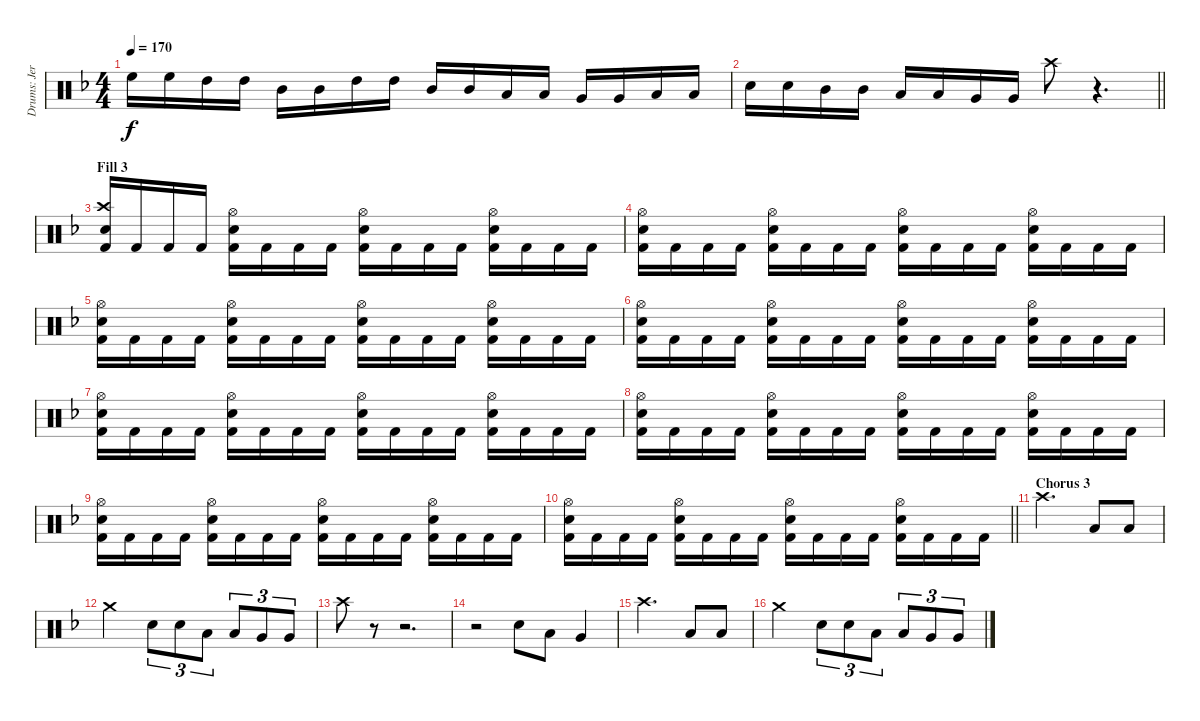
\track ("Drums: Jere Luokkamäki" "Drums: Jer") {instrument percussion}
\staff {score}
\articulation defaults
\ts (4 4)
\tempo 170
\clef neutral
\ks dminor "High Floor Tom (hit)".16{dy f} "High Floor Tom (hit)".16 "High Tom (hit)".16 "High Tom (hit)".16 "Mid Tom (hit)".16 "Mid Tom (hit)".16 "High Tom (hit)".16 "High Tom (hit)".16 "Mid Tom (hit)".16 "Mid Tom (hit)".16 "Low Tom (hit)".16 "Low Tom (hit)".16 "Very Low Tom (hit)".16 "Very Low Tom (hit)".16 "Low Floor Tom (hit)".16 "Low Floor Tom (hit)".16
|
\barLineRight lightlight "Electric Snare (hit)".16 "Electric Snare (hit)".16 "Mid Tom (hit)".16 "Mid Tom (hit)".16 "Low Tom (hit)".16 "Low Tom (hit)".16 "Very Low Tom (hit)".16 "Very Low Tom (hit)".16 "Crash high (hit)".8
r.4{d} |
\section ("" "Fill 3")
("Crash high (hit)" "Electric Snare (hit)" "Kick (hit) 2").16 "Kick (hit) 2".16 "Kick (hit) 2".16 "Kick (hit) 2".16 ("Hi-Hat (open)" "Electric Snare (hit)" "Kick (hit) 2").16 "Kick (hit) 2".16 "Kick (hit) 2".16 "Kick (hit) 2".16 ("Hi-Hat (open)" "Electric Snare (hit)" "Kick (hit) 2").16 "Kick (hit) 2".16 "Kick (hit) 2".16 "Kick (hit) 2".16 ("Hi-Hat (open)" "Electric Snare (hit)" "Kick (hit) 2").16 "Kick (hit) 2".16 "Kick (hit) 2".16 "Kick (hit) 2".16 |
("Hi-Hat (open)" "Electric Snare (hit)" "Kick (hit) 2").16 "Kick (hit) 2".16 "Kick (hit) 2".16 "Kick (hit) 2".16 ("Hi-Hat (open)" "Electric Snare (hit)" "Kick (hit) 2").16 "Kick (hit) 2".16 "Kick (hit) 2".16 "Kick (hit) 2".16 ("Hi-Hat (open)" "Electric Snare (hit)" "Kick (hit) 2").16 "Kick (hit) 2".16 "Kick (hit) 2".16 "Kick (hit) 2".16 ("Hi-Hat (open)" "Electric Snare (hit)" "Kick (hit) 2").16 "Kick (hit) 2".16 "Kick (hit) 2".16 "Kick (hit) 2".16 |
("Hi-Hat (open)" "Electric Snare (hit)" "Kick (hit) 2").16 "Kick (hit) 2".16 "Kick (hit) 2".16 "Kick (hit) 2".16 ("Hi-Hat (open)" "Electric Snare (hit)" "Kick (hit) 2").16 "Kick (hit) 2".16 "Kick (hit) 2".16 "Kick (hit) 2".16 ("Hi-Hat (open)" "Electric Snare (hit)" "Kick (hit) 2").16 "Kick (hit) 2".16 "Kick (hit) 2".16 "Kick (hit) 2".16 ("Hi-Hat (open)" "Electric Snare (hit)" "Kick (hit) 2").16 "Kick (hit) 2".16 "Kick (hit) 2".16 "Kick (hit) 2".16 |
("Hi-Hat (open)" "Electric Snare (hit)" "Kick (hit) 2").16 "Kick (hit) 2".16 "Kick (hit) 2".16 "Kick (hit) 2".16 ("Hi-Hat (open)" "Electric Snare (hit)" "Kick (hit) 2").16 "Kick (hit) 2".16 "Kick (hit) 2".16 "Kick (hit) 2".16 ("Hi-Hat (open)" "Electric Snare (hit)" "Kick (hit) 2").16 "Kick (hit) 2".16 "Kick (hit) 2".16 "Kick (hit) 2".16 ("Hi-Hat (open)" "Electric Snare (hit)" "Kick (hit) 2").16 "Kick (hit) 2".16 "Kick (hit) 2".16 "Kick (hit) 2".16 |
("Hi-Hat (open)" "Electric Snare (hit)" "Kick (hit) 2").16 "Kick (hit) 2".16 "Kick (hit) 2".16 "Kick (hit) 2".16 ("Hi-Hat (open)" "Electric Snare (hit)" "Kick (hit) 2").16 "Kick (hit) 2".16 "Kick (hit) 2".16 "Kick (hit) 2".16 ("Hi-Hat (open)" "Electric Snare (hit)" "Kick (hit) 2").16 "Kick (hit) 2".16 "Kick (hit) 2".16 "Kick (hit) 2".16 ("Hi-Hat (open)" "Electric Snare (hit)" "Kick (hit) 2").16 "Kick (hit) 2".16 "Kick (hit) 2".16 "Kick (hit) 2".16 |
("Hi-Hat (open)" "Electric Snare (hit)" "Kick (hit) 2").16 "Kick (hit) 2".16 "Kick (hit) 2".16 "Kick (hit) 2".16 ("Hi-Hat (open)" "Electric Snare (hit)" "Kick (hit) 2").16 "Kick (hit) 2".16 "Kick (hit) 2".16 "Kick (hit) 2".16 ("Hi-Hat (open)" "Electric Snare (hit)" "Kick (hit) 2").16 "Kick (hit) 2".16 "Kick (hit) 2".16 "Kick (hit) 2".16 ("Hi-Hat (open)" "Electric Snare (hit)" "Kick (hit) 2").16 "Kick (hit) 2".16 "Kick (hit) 2".16 "Kick (hit) 2".16 |
("Hi-Hat (open)" "Electric Snare (hit)" "Kick (hit) 2").16 "Kick (hit) 2".16 "Kick (hit) 2".16 "Kick (hit) 2".16 ("Hi-Hat (open)" "Electric Snare (hit)" "Kick (hit) 2").16 "Kick (hit) 2".16 "Kick (hit) 2".16 "Kick (hit) 2".16 ("Hi-Hat (open)" "Electric Snare (hit)" "Kick (hit) 2").16 "Kick (hit) 2".16 "Kick (hit) 2".16 "Kick (hit) 2".16 ("Hi-Hat (open)" "Electric Snare (hit)" "Kick (hit) 2").16 "Kick (hit) 2".16 "Kick (hit) 2".16 "Kick (hit) 2".16 |
\barLineRight lightlight
("Hi-Hat (open)" "Electric Snare (hit)" "Kick (hit) 2").16 "Kick (hit) 2".16 "Kick (hit) 2".16 "Kick (hit) 2".16 ("Hi-Hat (open)" "Electric Snare (hit)" "Kick (hit) 2").16 "Kick (hit) 2".16 "Kick (hit) 2".16 "Kick (hit) 2".16 ("Hi-Hat (open)" "Electric Snare (hit)" "Kick (hit) 2").16 "Kick (hit) 2".16 "Kick (hit) 2".16 "Kick (hit) 2".16 ("Hi-Hat (open)" "Electric Snare (hit)" "Kick (hit) 2").16 "Kick (hit) 2".16 "Kick (hit) 2".16 "Kick (hit) 2".16 |
\section ("" "Chorus 3")
"Crash high (hit)".2{d} "Low Tom (hit)".8 "Low Tom (hit)".8 |
"Crash medium (hit)".2 "Electric Snare (hit)".8{tu (3 2)} "Electric Snare (hit)".8{tu (3 2)} "Low Tom (hit)".8{tu (3 2)} "Low Tom (hit)".8{tu (3 2)} "Very Low Tom (hit)".8{tu (3 2)} "Very Low Tom (hit)".8{tu (3 2)} |
"Crash high (hit)".8 r.8 r.2{d} |
r.2 "Electric Snare (hit)".8 "Low Tom (hit)".8 "Very Low Tom (hit)".4 |
"Crash high (hit)".2{d} "Low Tom (hit)".8 "Low Tom (hit)".8 |
"Crash medium (hit)".2 "Electric Snare (hit)".8{tu (3 2)} "Electric Snare (hit)".8{tu (3 2)} "Low Tom (hit)".8{tu (3 2)} "Low Tom (hit)".8{tu (3 2)} "Very Low Tom (hit)".8{tu (3 2)} "Very Low Tom (hit)".8{tu (3 2)}
